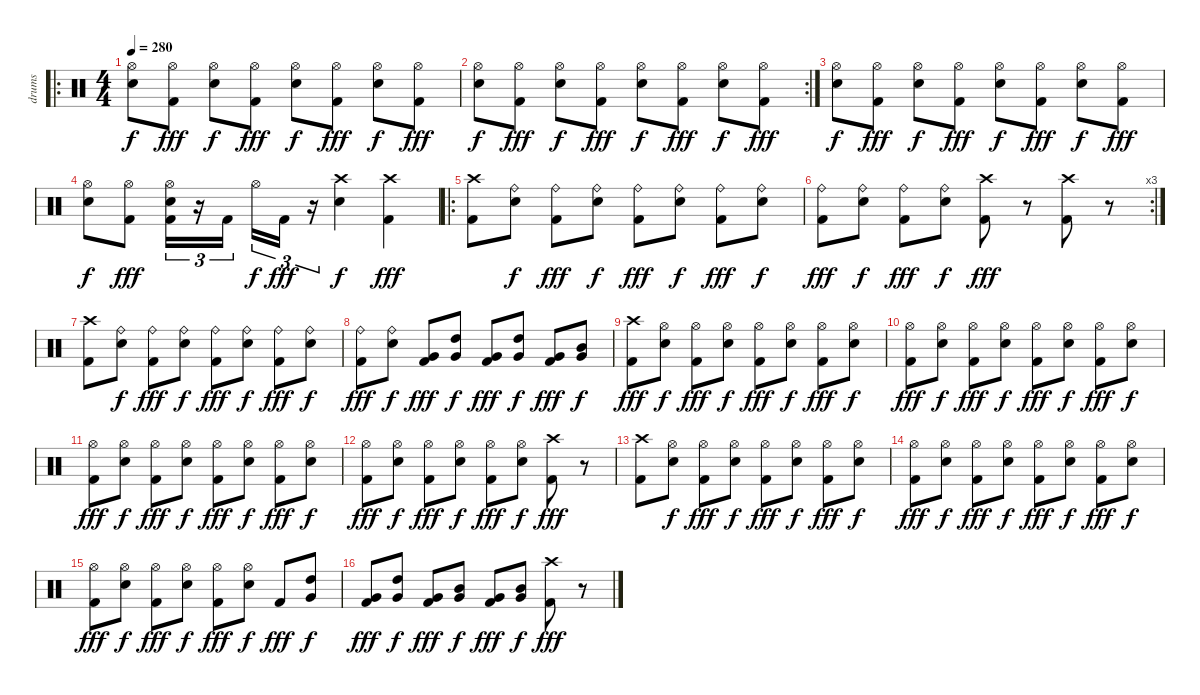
\track ("drums" "drums") {instrument percussion}
\staff {score}
\articulation defaults
\ro
\ts (4 4)
\tempo 280
\clef neutral
\ks c
("Hi-Hat (open)" "Snare (hit) 2").8{dy f} ("Hi-Hat (open)" "Kick (hit) 2").8{dy fff} ("Hi-Hat (open)" "Snare (hit) 2").8{dy f} ("Hi-Hat (open)" "Kick (hit) 2").8{dy fff} ("Hi-Hat (open)" "Snare (hit) 2").8{dy f} ("Hi-Hat (open)" "Kick (hit) 2").8{dy fff} ("Hi-Hat (open)" "Snare (hit) 2").8{dy f} ("Hi-Hat (open)" "Kick (hit) 2").8{dy fff} |
\rc 2
("Hi-Hat (open)" "Snare (hit) 2").8{dy f} ("Hi-Hat (open)" "Kick (hit) 2").8{dy fff} ("Hi-Hat (open)" "Snare (hit) 2").8{dy f} ("Hi-Hat (open)" "Kick (hit) 2").8{dy fff} ("Hi-Hat (open)" "Snare (hit) 2").8{dy f} ("Hi-Hat (open)" "Kick (hit) 2").8{dy fff} ("Hi-Hat (open)" "Snare (hit) 2").8{dy f} ("Hi-Hat (open)" "Kick (hit) 2").8{dy fff} |
("Hi-Hat (open)" "Snare (hit) 2").8{dy f} ("Hi-Hat (open)" "Kick (hit) 2").8{dy fff} ("Hi-Hat (open)" "Snare (hit) 2").8{dy f} ("Hi-Hat (open)" "Kick (hit) 2").8{dy fff} ("Hi-Hat (open)" "Snare (hit) 2").8{dy f} ("Hi-Hat (open)" "Kick (hit) 2").8{dy fff} ("Hi-Hat (open)" "Snare (hit) 2").8{dy f} ("Hi-Hat (open)" "Kick (hit) 2").8{dy fff} |
("Hi-Hat (open)" "Snare (hit) 2").8{dy f} ("Hi-Hat (open)" "Kick (hit) 2").8{dy fff} ("Hi-Hat (open)" "Snare (hit) 2" "Kick (hit) 2").16{tu (3 2)} r.16{tu (3 2)} "Kick (hit) 2".16{tu (3 2)} "Hi-Hat (open)".16{tu (3 2) dy f} "Kick (hit) 2".16{tu (3 2) dy fff} r.16{tu (3 2)} ("Crash high (hit)" "Snare (hit) 2").4{dy f} ("Crash high (hit)" "Kick (hit) 2").4{dy fff} |
\ro
("Crash high (hit)" "Kick (hit) 2").8 ("Ride (bell)" "Snare (hit) 2").8{dy f} ("Ride (bell)" "Kick (hit) 2").8{dy fff} ("Ride (bell)" "Snare (hit) 2").8{dy f} ("Ride (bell)" "Kick (hit) 2").8{dy fff} ("Ride (bell)" "Snare (hit) 2").8{dy f} ("Ride (bell)" "Kick (hit) 2").8{dy fff} ("Ride (bell)" "Snare (hit) 2").8{dy f} |
\rc 3
("Ride (bell)" "Kick (hit) 2").8{dy fff} ("Ride (bell)" "Snare (hit) 2").8{dy f} ("Ride (bell)" "Kick (hit) 2").8{dy fff} ("Ride (bell)" "Snare (hit) 2").8{dy f} ("Crash high (hit)" "Kick (hit) 2").8{dy fff} r.8 ("Crash high (hit)" "Kick (hit) 2").8 r.8 |
("Crash high (hit)" "Kick (hit) 2").8 ("Ride (bell)" "Snare (hit) 2").8{dy f} ("Ride (bell)" "Kick (hit) 2").8{dy fff} ("Ride (bell)" "Snare (hit) 2").8{dy f} ("Ride (bell)" "Kick (hit) 2").8{dy fff} ("Ride (bell)" "Snare (hit) 2").8{dy f} ("Ride (bell)" "Kick (hit) 2").8{dy fff} ("Ride (bell)" "Snare (hit) 2").8{dy f} |
("Ride (bell)" "Kick (hit) 2").8{dy fff} ("Ride (bell)" "Snare (hit) 2").8{dy f} ("Very Low Tom (hit)" "Kick (hit) 2").8{dy fff} ("High Tom (hit)" "Very Low Tom (hit)").8{dy f} ("Very Low Tom (hit)" "Kick (hit) 2").8{dy fff} ("High Tom (hit)" "Very Low Tom (hit)").8{dy f} ("Very Low Tom (hit)" "Kick (hit) 2").8{dy fff} ("Mid Tom (hit)" "Very Low Tom (hit)").8{dy f} |
("Crash high (hit)" "Kick (hit) 2").8{dy fff} ("Hi-Hat (open)" "Snare (hit) 2").8{dy f} ("Hi-Hat (open)" "Kick (hit) 2").8{dy fff} ("Hi-Hat (open)" "Snare (hit) 2").8{dy f} ("Hi-Hat (open)" "Kick (hit) 2").8{dy fff} ("Hi-Hat (open)" "Snare (hit) 2").8{dy f} ("Hi-Hat (open)" "Kick (hit) 2").8{dy fff} ("Hi-Hat (open)" "Snare (hit) 2").8{dy f} |
("Hi-Hat (open)" "Kick (hit) 2").8{dy fff} ("Hi-Hat (open)" "Snare (hit) 2").8{dy f} ("Hi-Hat (open)" "Kick (hit) 2").8{dy fff} ("Hi-Hat (open)" "Snare (hit) 2").8{dy f} ("Hi-Hat (open)" "Kick (hit) 2").8{dy fff} ("Hi-Hat (open)" "Snare (hit) 2").8{dy f} ("Hi-Hat (open)" "Kick (hit) 2").8{dy fff} ("Hi-Hat (open)" "Snare (hit) 2").8{dy f} |
("Hi-Hat (open)" "Kick (hit) 2").8{dy fff} ("Hi-Hat (open)" "Snare (hit) 2").8{dy f} ("Hi-Hat (open)" "Kick (hit) 2").8{dy fff} ("Hi-Hat (open)" "Snare (hit) 2").8{dy f} ("Hi-Hat (open)" "Kick (hit) 2").8{dy fff} ("Hi-Hat (open)" "Snare (hit) 2").8{dy f} ("Hi-Hat (open)" "Kick (hit) 2").8{dy fff} ("Hi-Hat (open)" "Snare (hit) 2").8{dy f} |
("Hi-Hat (open)" "Kick (hit) 2").8{dy fff} ("Hi-Hat (open)" "Snare (hit) 2").8{dy f} ("Hi-Hat (open)" "Kick (hit) 2").8{dy fff} ("Hi-Hat (open)" "Snare (hit) 2").8{dy f} ("Hi-Hat (open)" "Kick (hit) 2").8{dy fff} ("Hi-Hat (open)" "Snare (hit) 2").8{dy f} ("Crash high (hit)" "Kick (hit) 2").8{dy fff} r.8 |
("Crash high (hit)" "Kick (hit) 2").8 ("Hi-Hat (open)" "Snare (hit) 2").8{dy f} ("Hi-Hat (open)" "Kick (hit) 2").8{dy fff} ("Hi-Hat (open)" "Snare (hit) 2").8{dy f} ("Hi-Hat (open)" "Kick (hit) 2").8{dy fff} ("Hi-Hat (open)" "Snare (hit) 2").8{dy f} ("Hi-Hat (open)" "Kick (hit) 2").8{dy fff} ("Hi-Hat (open)" "Snare (hit) 2").8{dy f} |
("Hi-Hat (open)" "Kick (hit) 2").8{dy fff} ("Hi-Hat (open)" "Snare (hit) 2").8{dy f} ("Hi-Hat (open)" "Kick (hit) 2").8{dy fff} ("Hi-Hat (open)" "Snare (hit) 2").8{dy f} ("Hi-Hat (open)" "Kick (hit) 2").8{dy fff} ("Hi-Hat (open)" "Snare (hit) 2").8{dy f} ("Hi-Hat (open)" "Kick (hit) 2").8{dy fff} ("Hi-Hat (open)" "Snare (hit) 2").8{dy f} |
("Hi-Hat (open)" "Kick (hit) 2").8{dy fff} ("Hi-Hat (open)" "Snare (hit) 2").8{dy f} ("Hi-Hat (open)" "Kick (hit) 2").8{dy fff} ("Hi-Hat (open)" "Snare (hit) 2").8{dy f} ("Hi-Hat (open)" "Kick (hit) 2").8{dy fff} ("Hi-Hat (open)" "Snare (hit) 2").8{dy f} "Kick (hit) 2".8{dy fff} ("High Tom (hit)" "Very Low Tom (hit)").8{dy f} |
("Very Low Tom (hit)" "Kick (hit) 2").8{dy fff} ("High Tom (hit)" "Very Low Tom (hit)").8{dy f} ("Very Low Tom (hit)" "Kick (hit) 2").8{dy fff} ("Mid Tom (hit)" "Very Low Tom (hit)").8{dy f} ("Very Low Tom (hit)" "Kick (hit) 2").8{dy fff} ("Mid Tom (hit)" "Very Low Tom (hit)").8{dy f} ("Crash high (hit)" "Kick (hit) 2").8{dy fff} r.8
